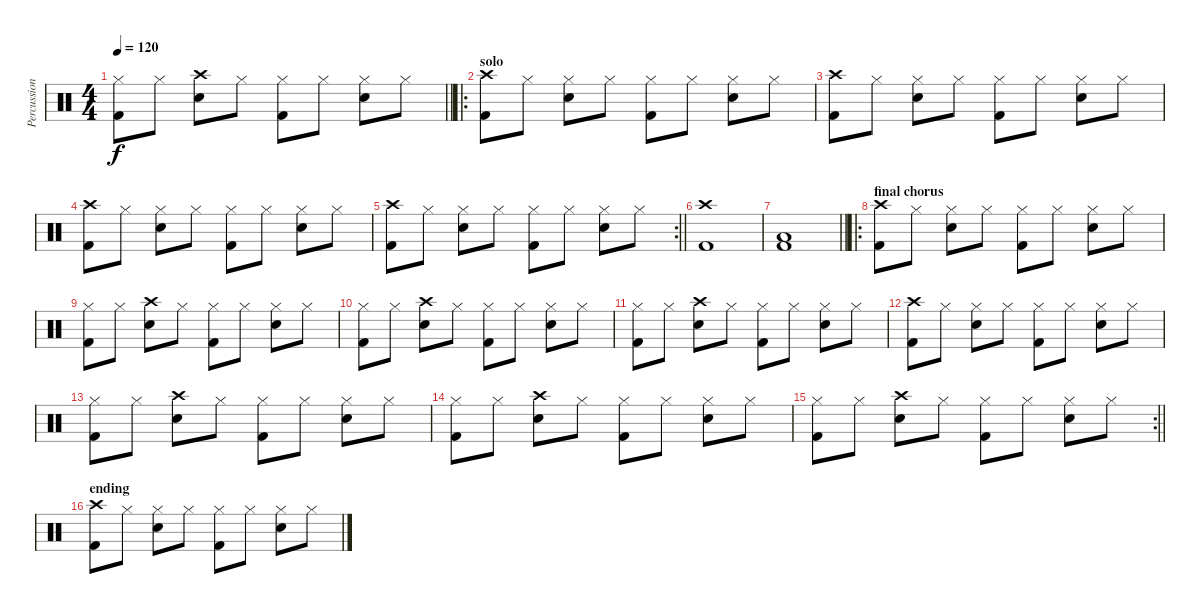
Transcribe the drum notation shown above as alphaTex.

\track ("Percussion" "Percussion") {instrument percussion}
\staff {score}
\articulation defaults
\ts (4 4)
\tempo 120
\clef neutral
\barLineRight lightlight
\ks c
("Hi-Hat (closed)" "Kick (hit) 2").8{dy f} "Hi-Hat (closed)".8 ("Crash high (hit)" "Snare (hit) 2").8 "Hi-Hat (closed)".8 ("Hi-Hat (closed)" "Kick (hit) 2").8 "Hi-Hat (closed)".8 ("Hi-Hat (closed)" "Snare (hit) 2").8 "Hi-Hat (closed)".8 |
\ro
\section ("" "solo")
("Crash high (hit)" "Kick (hit) 2").8 "Hi-Hat (closed)".8 ("Hi-Hat (closed)" "Snare (hit) 2").8 "Hi-Hat (closed)".8 ("Hi-Hat (closed)" "Kick (hit) 2").8 "Hi-Hat (closed)".8 ("Hi-Hat (closed)" "Snare (hit) 2").8 "Hi-Hat (closed)".8 |
("Crash high (hit)" "Kick (hit) 2").8 "Hi-Hat (closed)".8 ("Hi-Hat (closed)" "Snare (hit) 2").8 "Hi-Hat (closed)".8 ("Hi-Hat (closed)" "Kick (hit) 2").8 "Hi-Hat (closed)".8 ("Hi-Hat (closed)" "Snare (hit) 2").8 "Hi-Hat (closed)".8 |
("Crash high (hit)" "Kick (hit) 2").8 "Hi-Hat (closed)".8 ("Hi-Hat (closed)" "Snare (hit) 2").8 "Hi-Hat (closed)".8 ("Hi-Hat (closed)" "Kick (hit) 2").8 "Hi-Hat (closed)".8 ("Hi-Hat (closed)" "Snare (hit) 2").8 "Hi-Hat (closed)".8 |
\rc 2
\barLineRight lightlight
("Crash high (hit)" "Kick (hit) 2").8 "Hi-Hat (closed)".8 ("Hi-Hat (closed)" "Snare (hit) 2").8 "Hi-Hat (closed)".8 ("Hi-Hat (closed)" "Kick (hit) 2").8 "Hi-Hat (closed)".8 ("Hi-Hat (closed)" "Snare (hit) 2").8 "Hi-Hat (closed)".8 |
("Crash high (hit)" "Kick (hit) 2").1 |
\barLineRight lightlight
("Low Tom (hit)" "Kick (hit) 2").1 |
\ro
\section ("" "final chorus")
("Crash high (hit)" "Kick (hit) 2").8 "Hi-Hat (closed)".8 ("Hi-Hat (closed)" "Snare (hit) 2").8 "Hi-Hat (closed)".8 ("Hi-Hat (closed)" "Kick (hit) 2").8 "Hi-Hat (closed)".8 ("Hi-Hat (closed)" "Snare (hit) 2").8 "Hi-Hat (closed)".8 |
("Hi-Hat (closed)" "Kick (hit) 2").8 "Hi-Hat (closed)".8 ("Crash high (hit)" "Snare (hit) 2").8 "Hi-Hat (closed)".8 ("Hi-Hat (closed)" "Kick (hit) 2").8 "Hi-Hat (closed)".8 ("Hi-Hat (closed)" "Snare (hit) 2").8 "Hi-Hat (closed)".8 |
("Hi-Hat (closed)" "Kick (hit) 2").8 "Hi-Hat (closed)".8 ("Crash high (hit)" "Snare (hit) 2").8 "Hi-Hat (closed)".8 ("Hi-Hat (closed)" "Kick (hit) 2").8 "Hi-Hat (closed)".8 ("Hi-Hat (closed)" "Snare (hit) 2").8 "Hi-Hat (closed)".8 |
("Hi-Hat (closed)" "Kick (hit) 2").8 "Hi-Hat (closed)".8 ("Crash high (hit)" "Snare (hit) 2").8 "Hi-Hat (closed)".8 ("Hi-Hat (closed)" "Kick (hit) 2").8 "Hi-Hat (closed)".8 ("Hi-Hat (closed)" "Snare (hit) 2").8 "Hi-Hat (closed)".8 |
("Crash high (hit)" "Kick (hit) 2").8 "Hi-Hat (closed)".8 ("Hi-Hat (closed)" "Snare (hit) 2").8 "Hi-Hat (closed)".8 ("Hi-Hat (closed)" "Kick (hit) 2").8 "Hi-Hat (closed)".8 ("Hi-Hat (closed)" "Snare (hit) 2").8 "Hi-Hat (closed)".8 |
("Hi-Hat (closed)" "Kick (hit) 2").8 "Hi-Hat (closed)".8 ("Crash high (hit)" "Snare (hit) 2").8 "Hi-Hat (closed)".8 ("Hi-Hat (closed)" "Kick (hit) 2").8 "Hi-Hat (closed)".8 ("Hi-Hat (closed)" "Snare (hit) 2").8 "Hi-Hat (closed)".8 |
("Hi-Hat (closed)" "Kick (hit) 2").8 "Hi-Hat (closed)".8 ("Crash high (hit)" "Snare (hit) 2").8 "Hi-Hat (closed)".8 ("Hi-Hat (closed)" "Kick (hit) 2").8 "Hi-Hat (closed)".8 ("Hi-Hat (closed)" "Snare (hit) 2").8 "Hi-Hat (closed)".8 |
\rc 2
\barLineRight lightlight
("Hi-Hat (closed)" "Kick (hit) 2").8 "Hi-Hat (closed)".8 ("Crash high (hit)" "Snare (hit) 2").8 "Hi-Hat (closed)".8 ("Hi-Hat (closed)" "Kick (hit) 2").8 "Hi-Hat (closed)".8 ("Hi-Hat (closed)" "Snare (hit) 2").8 "Hi-Hat (closed)".8 |
\section ("" "ending")
("Crash high (hit)" "Kick (hit) 2").8 "Hi-Hat (closed)".8 ("Hi-Hat (closed)" "Snare (hit) 2").8 "Hi-Hat (closed)".8 ("Hi-Hat (closed)" "Kick (hit) 2").8 "Hi-Hat (closed)".8 ("Hi-Hat (closed)" "Snare (hit) 2").8 "Hi-Hat (closed)".8
